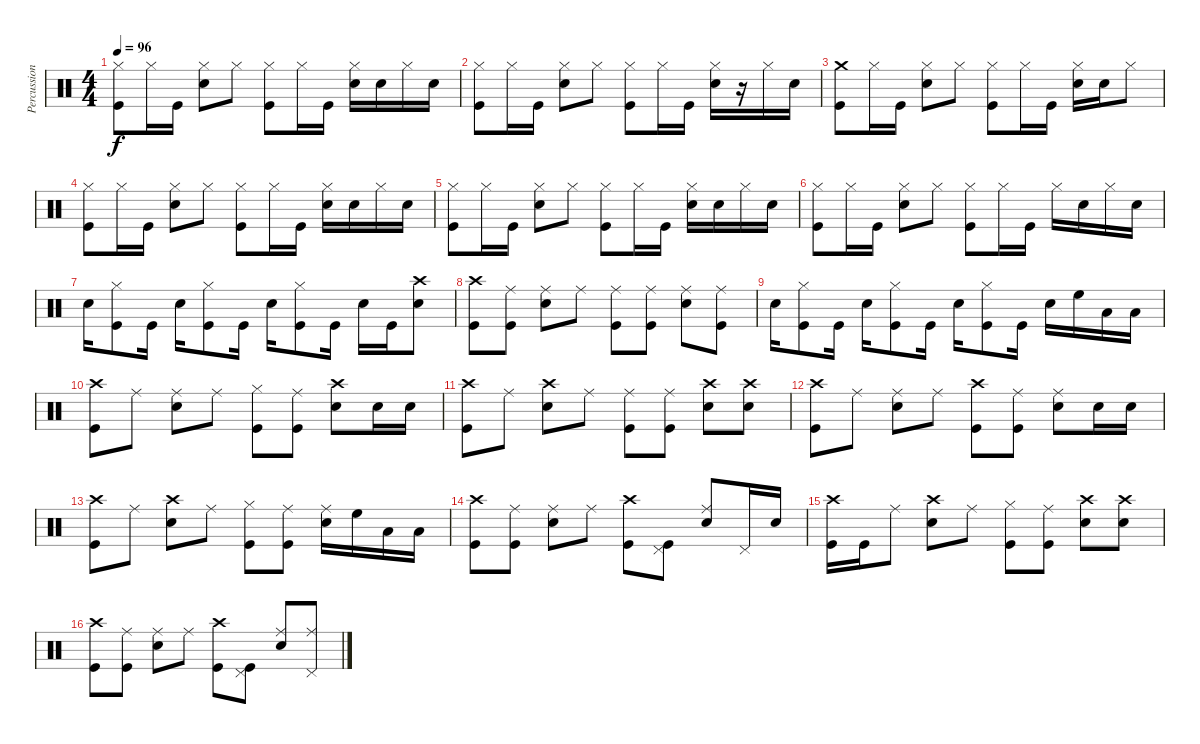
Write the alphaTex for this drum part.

\track ("Percussions" "Percussion") {instrument percussion}
\staff {score}
\articulation defaults
\ts (4 4)
\tempo 96
\clef neutral
\ks c
("Hi-Hat (closed)" "Kick (hit)").8{dy f} "Hi-Hat (closed)".16 "Kick (hit)".16 ("Hi-Hat (closed)" "Snare (hit) 2").8 "Hi-Hat (closed)".8 ("Hi-Hat (closed)" "Kick (hit)").8 "Hi-Hat (closed)".16 "Kick (hit)".16 ("Hi-Hat (closed)" "Snare (hit) 2").16 "Snare (hit) 2".16 "Hi-Hat (closed)".16 "Snare (hit) 2".16 |
("Hi-Hat (closed)" "Kick (hit)").8 "Hi-Hat (closed)".16 "Kick (hit)".16 ("Hi-Hat (closed)" "Snare (hit) 2").8 "Hi-Hat (closed)".8 ("Hi-Hat (closed)" "Kick (hit)").8 "Hi-Hat (closed)".16 "Kick (hit)".16 ("Hi-Hat (closed)" "Snare (hit) 2").16 r.16 "Hi-Hat (closed)".16 "Snare (hit) 2".16 |
("Crash medium (hit)" "Kick (hit)").8 "Hi-Hat (closed)".16 "Kick (hit)".16 ("Hi-Hat (closed)" "Snare (hit) 2").8 "Hi-Hat (closed)".8 ("Hi-Hat (closed)" "Kick (hit)").8 "Hi-Hat (closed)".16 "Kick (hit)".16 ("Hi-Hat (closed)" "Snare (hit) 2").16 "Snare (hit) 2".16 "Hi-Hat (closed)".8 |
("Hi-Hat (closed)" "Kick (hit)").8 "Hi-Hat (closed)".16 "Kick (hit)".16 ("Hi-Hat (closed)" "Snare (hit) 2").8 "Hi-Hat (closed)".8 ("Hi-Hat (closed)" "Kick (hit)").8 "Hi-Hat (closed)".16 "Kick (hit)".16 ("Hi-Hat (closed)" "Snare (hit) 2").16 "Snare (hit) 2".16 "Hi-Hat (closed)".16 "Snare (hit) 2".16 |
("Hi-Hat (closed)" "Kick (hit)").8 "Hi-Hat (closed)".16 "Kick (hit)".16 ("Hi-Hat (closed)" "Snare (hit) 2").8 "Hi-Hat (closed)".8 ("Hi-Hat (closed)" "Kick (hit)").8 "Hi-Hat (closed)".16 "Kick (hit)".16 ("Hi-Hat (closed)" "Snare (hit) 2").16 "Snare (hit) 2".16 "Hi-Hat (closed)".16 "Snare (hit) 2".16 |
("Hi-Hat (closed)" "Kick (hit)").8 "Hi-Hat (closed)".16 "Kick (hit)".16 ("Hi-Hat (closed)" "Snare (hit) 2").8 "Hi-Hat (closed)".8 ("Hi-Hat (closed)" "Kick (hit)").8 "Hi-Hat (closed)".16 "Kick (hit)".16 "Hi-Hat (closed)".16 "Snare (hit) 2".16 "Hi-Hat (closed)".16 "Snare (hit) 2".16 |
"Snare (hit) 2".16 ("Hi-Hat (closed)" "Kick (hit)").8 "Kick (hit)".16 "Snare (hit) 2".16 ("Hi-Hat (closed)" "Kick (hit)").8 "Kick (hit)".16 "Snare (hit) 2".16 ("Hi-Hat (closed)" "Kick (hit)").8 "Kick (hit)".16 "Snare (hit) 2".16 "Kick (hit)".16 ("Crash high (hit)" "Snare (hit) 2").8 |
("Crash high (hit)" "Kick (hit)").8 ("Ride (middle)" "Kick (hit)").8 ("Ride (middle)" "Snare (hit) 2").8 "Ride (middle)".8 ("Ride (middle)" "Kick (hit)").8 ("Ride (middle)" "Kick (hit)").8 ("Ride (middle)" "Snare (hit) 2").8 ("Ride (middle)" "Kick (hit)").8 |
"Snare (hit) 2".16 ("Hi-Hat (closed)" "Kick (hit)").8 "Kick (hit)".16 "Snare (hit) 2".16 ("Hi-Hat (closed)" "Kick (hit)").8 "Kick (hit)".16 "Snare (hit) 2".16 ("Hi-Hat (closed)" "Kick (hit)").8 "Kick (hit)".16 "Snare (hit) 2".16 "High Floor Tom (hit)".16 "Low Tom (hit)".16 "Low Floor Tom (hit)".16 |
("Crash high (hit)" "Kick (hit)").8 "Ride (middle)".8 ("Ride (middle)" "Snare (hit) 2").8 "Ride (middle)".8 ("Hi-Hat (closed)" "Kick (hit)").8 ("Ride (middle)" "Kick (hit)").8 ("Crash high (hit)" "Snare (hit) 2").8 "Snare (hit) 2".16 "Snare (hit) 2".16 |
("Crash high (hit)" "Kick (hit)").8 "Ride (middle)".8 ("Crash high (hit)" "Snare (hit) 2").8 "Ride (middle)".8 ("Ride (middle)" "Kick (hit)").8 ("Ride (middle)" "Kick (hit)").8 ("Crash high (hit)" "Snare (hit) 2").8 ("Crash high (hit)" "Snare (hit) 2").8 |
("Crash high (hit)" "Kick (hit)").8 "Ride (middle)".8 ("Ride (middle)" "Snare (hit) 2").8 "Ride (middle)".8 ("Crash high (hit)" "Kick (hit)").8 ("Ride (middle)" "Kick (hit)").8 ("Ride (middle)" "Snare (hit) 2").8 "Snare (hit) 2".16 "Snare (hit) 2".16 |
("Crash high (hit)" "Kick (hit)").8 "Ride (middle)".8 ("Crash high (hit)" "Snare (hit) 2").8 "Ride (middle)".8 ("Hi-Hat (closed)" "Kick (hit)").8 ("Ride (middle)" "Kick (hit)").8 ("Ride (middle)" "Snare (hit) 2").16 "High Floor Tom (hit)".16 "Low Tom (hit)".16 "Low Floor Tom (hit)".16 |
("Crash high (hit)" "Kick (hit)").8 ("Ride (middle)" "Kick (hit)").8 ("Ride (middle)" "Snare (hit) 2").8 "Ride (middle)".8 ("Crash high (hit)" "Kick (hit)").8 ("Pedal Hi-Hat (hit)" "Kick (hit)").8 ("Ride (middle)" "Snare (hit) 2").8 "Pedal Hi-Hat (hit)".16 "Snare (hit) 2".16 |
("Crash high (hit)" "Kick (hit)").16 "Kick (hit)".16 "Ride (middle)".8 ("Crash high (hit)" "Snare (hit) 2").8 "Ride (middle)".8 ("Hi-Hat (closed)" "Kick (hit)").8 ("Ride (middle)" "Kick (hit)").8 ("Crash high (hit)" "Snare (hit) 2").8 ("Crash high (hit)" "Snare (hit) 2").8 |
("Crash high (hit)" "Kick (hit)").8 ("Ride (middle)" "Kick (hit)").8 ("Ride (middle)" "Snare (hit) 2").8 "Ride (middle)".8 ("Crash high (hit)" "Kick (hit)").8 ("Pedal Hi-Hat (hit)" "Kick (hit)").8 ("Ride (middle)" "Snare (hit) 2").8 ("Ride (middle)" "Pedal Hi-Hat (hit)").8
